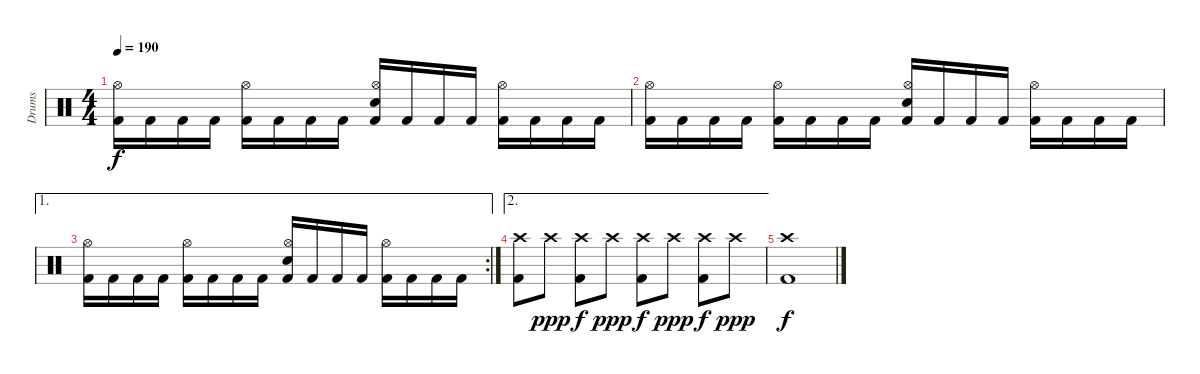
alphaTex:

\track ("Drums" "Drums") {instrument percussion}
\staff {score}
\articulation defaults
\ts (4 4)
\tempo 190
\clef neutral
\ks c
("Kick (hit) 2" "Hi-Hat (open)").16{dy f} "Kick (hit) 2".16 "Kick (hit) 2".16 "Kick (hit) 2".16 ("Kick (hit) 2" "Hi-Hat (open)").16 "Kick (hit) 2".16 "Kick (hit) 2".16 "Kick (hit) 2".16 ("Kick (hit) 2" "Hi-Hat (open)" "Electric Snare (hit)").16 "Kick (hit) 2".16 "Kick (hit) 2".16 "Kick (hit) 2".16 ("Kick (hit) 2" "Hi-Hat (open)").16 "Kick (hit) 2".16 "Kick (hit) 2".16 "Kick (hit) 2".16 |
("Kick (hit) 2" "Hi-Hat (open)").16 "Kick (hit) 2".16 "Kick (hit) 2".16 "Kick (hit) 2".16 ("Kick (hit) 2" "Hi-Hat (open)").16 "Kick (hit) 2".16 "Kick (hit) 2".16 "Kick (hit) 2".16 ("Kick (hit) 2" "Hi-Hat (open)" "Electric Snare (hit)").16 "Kick (hit) 2".16 "Kick (hit) 2".16 "Kick (hit) 2".16 ("Kick (hit) 2" "Hi-Hat (open)").16 "Kick (hit) 2".16 "Kick (hit) 2".16 "Kick (hit) 2".16 |
\ae 1
\rc 2
("Kick (hit) 2" "Hi-Hat (open)").16 "Kick (hit) 2".16 "Kick (hit) 2".16 "Kick (hit) 2".16 ("Kick (hit) 2" "Hi-Hat (open)").16 "Kick (hit) 2".16 "Kick (hit) 2".16 "Kick (hit) 2".16 ("Kick (hit) 2" "Hi-Hat (open)" "Electric Snare (hit)").16 "Kick (hit) 2".16 "Kick (hit) 2".16 "Kick (hit) 2".16 ("Kick (hit) 2" "Hi-Hat (open)").16 "Kick (hit) 2".16 "Kick (hit) 2".16 "Kick (hit) 2".16 |
\ae 2
("Crash high (hit)" "Kick (hit) 2").8 "Crash high (hit)".8{dy ppp} ("Crash high (hit)" "Kick (hit) 2").8{dy f} "Crash high (hit)".8{dy ppp} ("Crash high (hit)" "Kick (hit) 2").8{dy f} "Crash high (hit)".8{dy ppp} ("Crash high (hit)" "Kick (hit) 2").8{dy f} "Crash high (hit)".8{dy ppp} |
("Crash high (hit)" "Kick (hit) 2").1{dy f}
